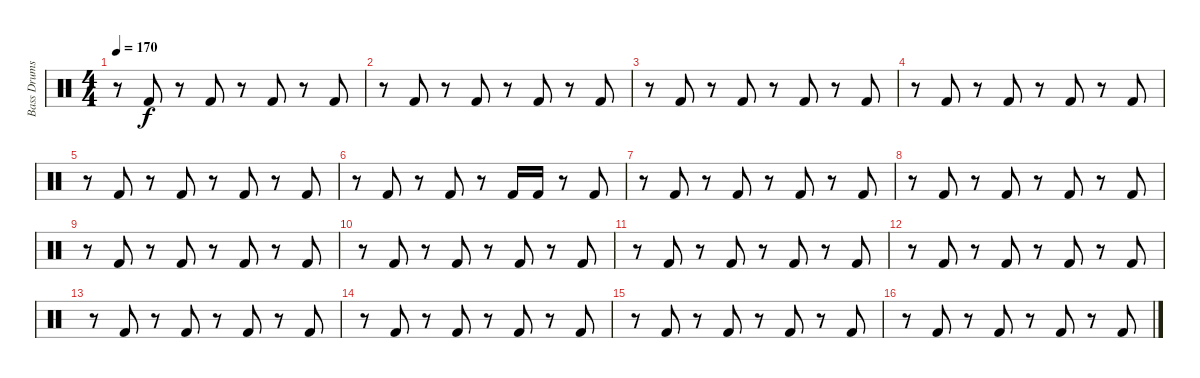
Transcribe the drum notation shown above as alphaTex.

\track ("Bass Drums" "Bass Drums") {instrument percussion}
\staff {score}
\articulation defaults
\ts (4 4)
\tempo 170
\clef neutral
\ks c
r.8{dy f} "Kick (hit) 2".8 r.8 "Kick (hit) 2".8 r.8 "Kick (hit) 2".8 r.8 "Kick (hit) 2".8 |
r.8 "Kick (hit) 2".8 r.8 "Kick (hit) 2".8 r.8 "Kick (hit) 2".8 r.8 "Kick (hit) 2".8 |
r.8 "Kick (hit) 2".8 r.8 "Kick (hit) 2".8 r.8 "Kick (hit) 2".8 r.8 "Kick (hit) 2".8 |
r.8 "Kick (hit) 2".8 r.8 "Kick (hit) 2".8 r.8 "Kick (hit) 2".8 r.8 "Kick (hit) 2".8 |
r.8 "Kick (hit) 2".8 r.8 "Kick (hit) 2".8 r.8 "Kick (hit) 2".8 r.8 "Kick (hit) 2".8 |
r.8 "Kick (hit) 2".8 r.8 "Kick (hit) 2".8 r.8 "Kick (hit) 2".16 "Kick (hit) 2".16 r.8 "Kick (hit) 2".8 |
r.8 "Kick (hit) 2".8 r.8 "Kick (hit) 2".8 r.8 "Kick (hit) 2".8 r.8 "Kick (hit) 2".8 |
r.8 "Kick (hit) 2".8 r.8 "Kick (hit) 2".8 r.8 "Kick (hit) 2".8 r.8 "Kick (hit) 2".8 |
r.8 "Kick (hit) 2".8 r.8 "Kick (hit) 2".8 r.8 "Kick (hit) 2".8 r.8 "Kick (hit) 2".8 |
r.8 "Kick (hit) 2".8 r.8 "Kick (hit) 2".8 r.8 "Kick (hit) 2".8 r.8 "Kick (hit) 2".8 |
r.8 "Kick (hit) 2".8 r.8 "Kick (hit) 2".8 r.8 "Kick (hit) 2".8 r.8 "Kick (hit) 2".8 |
r.8 "Kick (hit) 2".8 r.8 "Kick (hit) 2".8 r.8 "Kick (hit) 2".8 r.8 "Kick (hit) 2".8 |
r.8 "Kick (hit) 2".8 r.8 "Kick (hit) 2".8 r.8 "Kick (hit) 2".8 r.8 "Kick (hit) 2".8 |
r.8 "Kick (hit) 2".8 r.8 "Kick (hit) 2".8 r.8 "Kick (hit) 2".8 r.8 "Kick (hit) 2".8 |
r.8 "Kick (hit) 2".8 r.8 "Kick (hit) 2".8 r.8 "Kick (hit) 2".8 r.8 "Kick (hit) 2".8 |
r.8 "Kick (hit) 2".8 r.8 "Kick (hit) 2".8 r.8 "Kick (hit) 2".8 r.8 "Kick (hit) 2".8
